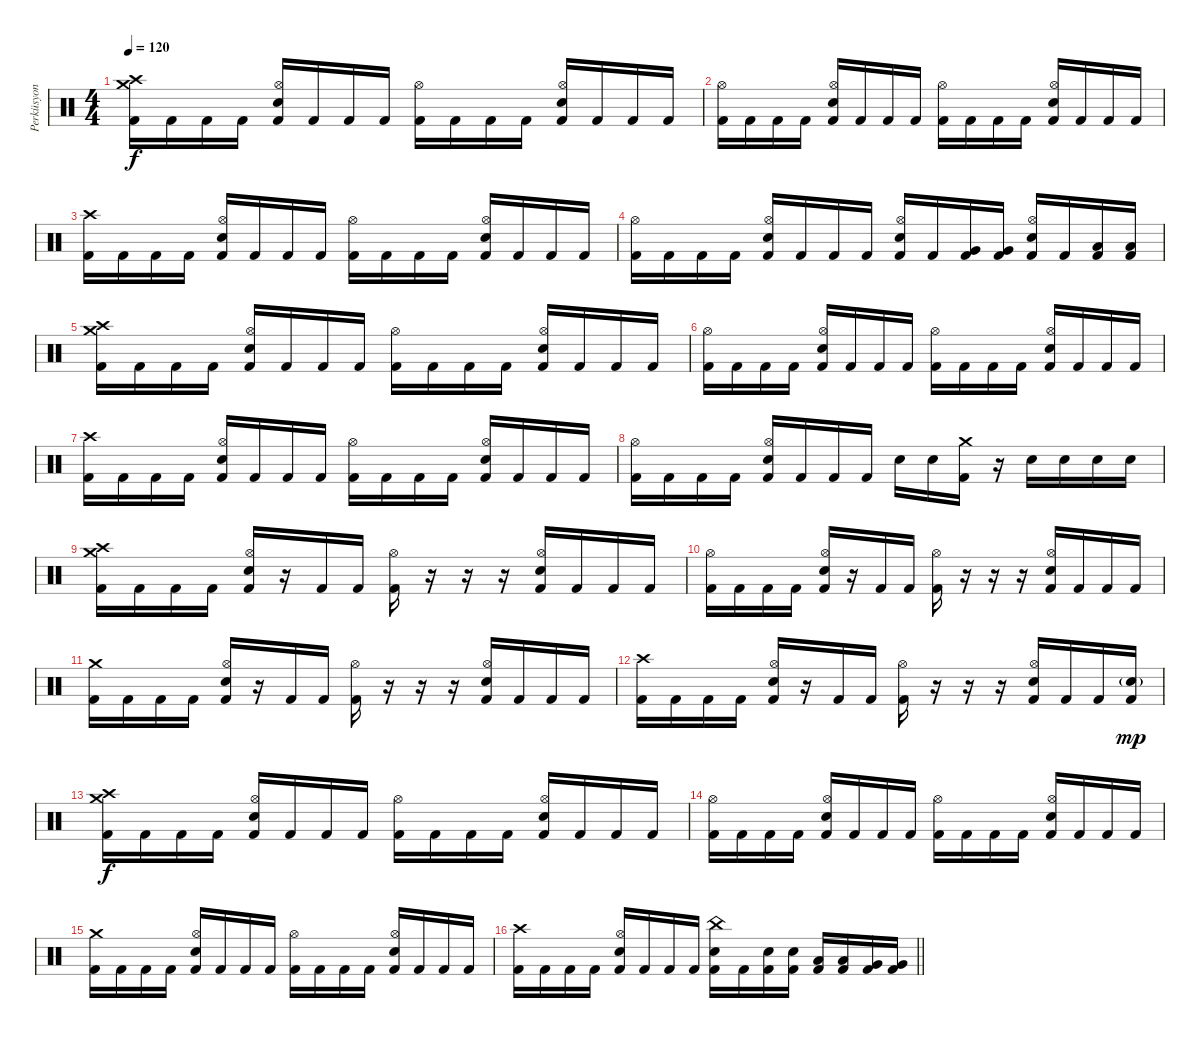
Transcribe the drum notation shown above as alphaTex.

\track ("Perküsyon" "Perküsyon") {instrument percussion}
\staff {score}
\articulation defaults
\ts (4 4)
\tempo 120
\clef neutral
\ks c
("Crash high (hit)" "Crash medium (hit)" "Kick (hit) 2").16{dy f} "Kick (hit) 2".16 "Kick (hit) 2".16 "Kick (hit) 2".16 ("Hi-Hat (open)" "Snare (hit) 2" "Kick (hit) 2").16 "Kick (hit) 2".16 "Kick (hit) 2".16 "Kick (hit) 2".16 ("Hi-Hat (open)" "Kick (hit) 2").16 "Kick (hit) 2".16 "Kick (hit) 2".16 "Kick (hit) 2".16 ("Hi-Hat (open)" "Snare (hit) 2" "Kick (hit) 2").16 "Kick (hit) 2".16 "Kick (hit) 2".16 "Kick (hit) 2".16 |
("Hi-Hat (open)" "Kick (hit) 2").16 "Kick (hit) 2".16 "Kick (hit) 2".16 "Kick (hit) 2".16 ("Hi-Hat (open)" "Snare (hit) 2" "Kick (hit) 2").16 "Kick (hit) 2".16 "Kick (hit) 2".16 "Kick (hit) 2".16 ("Hi-Hat (open)" "Kick (hit) 2").16 "Kick (hit) 2".16 "Kick (hit) 2".16 "Kick (hit) 2".16 ("Hi-Hat (open)" "Snare (hit) 2" "Kick (hit) 2").16 "Kick (hit) 2".16 "Kick (hit) 2".16 "Kick (hit) 2".16 |
("Crash high (hit)" "Kick (hit) 2").16 "Kick (hit) 2".16 "Kick (hit) 2".16 "Kick (hit) 2".16 ("Hi-Hat (open)" "Snare (hit) 2" "Kick (hit) 2").16 "Kick (hit) 2".16 "Kick (hit) 2".16 "Kick (hit) 2".16 ("Hi-Hat (open)" "Kick (hit) 2").16 "Kick (hit) 2".16 "Kick (hit) 2".16 "Kick (hit) 2".16 ("Hi-Hat (open)" "Snare (hit) 2" "Kick (hit) 2").16 "Kick (hit) 2".16 "Kick (hit) 2".16 "Kick (hit) 2".16 |
("Hi-Hat (open)" "Kick (hit) 2").16 "Kick (hit) 2".16 "Kick (hit) 2".16 "Kick (hit) 2".16 ("Hi-Hat (open)" "Snare (hit) 2" "Kick (hit) 2").16 "Kick (hit) 2".16 "Kick (hit) 2".16 "Kick (hit) 2".16 ("Hi-Hat (open)" "Snare (hit) 2" "Kick (hit) 2").16 "Kick (hit) 2".16 ("Very Low Tom (hit)" "Kick (hit) 2").16 ("Very Low Tom (hit)" "Kick (hit) 2").16 ("Hi-Hat (open)" "Snare (hit) 2" "Kick (hit) 2").16 "Kick (hit) 2".16 ("Low Floor Tom (hit)" "Kick (hit) 2").16 ("Low Floor Tom (hit)" "Kick (hit) 2").16 |
("Crash high (hit)" "Crash medium (hit)" "Kick (hit) 2").16 "Kick (hit) 2".16 "Kick (hit) 2".16 "Kick (hit) 2".16 ("Hi-Hat (open)" "Snare (hit) 2" "Kick (hit) 2").16 "Kick (hit) 2".16 "Kick (hit) 2".16 "Kick (hit) 2".16 ("Hi-Hat (open)" "Kick (hit) 2").16 "Kick (hit) 2".16 "Kick (hit) 2".16 "Kick (hit) 2".16 ("Hi-Hat (open)" "Snare (hit) 2" "Kick (hit) 2").16 "Kick (hit) 2".16 "Kick (hit) 2".16 "Kick (hit) 2".16 |
("Hi-Hat (open)" "Kick (hit) 2").16 "Kick (hit) 2".16 "Kick (hit) 2".16 "Kick (hit) 2".16 ("Hi-Hat (open)" "Snare (hit) 2" "Kick (hit) 2").16 "Kick (hit) 2".16 "Kick (hit) 2".16 "Kick (hit) 2".16 ("Hi-Hat (open)" "Kick (hit) 2").16 "Kick (hit) 2".16 "Kick (hit) 2".16 "Kick (hit) 2".16 ("Hi-Hat (open)" "Snare (hit) 2" "Kick (hit) 2").16 "Kick (hit) 2".16 "Kick (hit) 2".16 "Kick (hit) 2".16 |
("Crash high (hit)" "Kick (hit) 2").16 "Kick (hit) 2".16 "Kick (hit) 2".16 "Kick (hit) 2".16 ("Hi-Hat (open)" "Snare (hit) 2" "Kick (hit) 2").16 "Kick (hit) 2".16 "Kick (hit) 2".16 "Kick (hit) 2".16 ("Hi-Hat (open)" "Kick (hit) 2").16 "Kick (hit) 2".16 "Kick (hit) 2".16 "Kick (hit) 2".16 ("Hi-Hat (open)" "Snare (hit) 2" "Kick (hit) 2").16 "Kick (hit) 2".16 "Kick (hit) 2".16 "Kick (hit) 2".16 |
("Hi-Hat (open)" "Kick (hit) 2").16 "Kick (hit) 2".16 "Kick (hit) 2".16 "Kick (hit) 2".16 ("Hi-Hat (open)" "Snare (hit) 2" "Kick (hit) 2").16 "Kick (hit) 2".16 "Kick (hit) 2".16 "Kick (hit) 2".16 "Snare (hit) 2".16 "Snare (hit) 2".16 ("Crash medium (hit)" "Kick (hit) 2").16 r.16 "Snare (hit) 2".16 "Snare (hit) 2".16 "Snare (hit) 2".16 "Snare (hit) 2".16 |
("Crash high (hit)" "Crash medium (hit)" "Kick (hit) 2").16 "Kick (hit) 2".16 "Kick (hit) 2".16 "Kick (hit) 2".16 ("Snare (hit) 2" "Hi-Hat (open)" "Kick (hit) 2").16 r.16 "Kick (hit) 2".16 "Kick (hit) 2".16 ("Hi-Hat (open)" "Kick (hit) 2").16 r.16 r.16 r.16 ("Snare (hit) 2" "Hi-Hat (open)" "Kick (hit) 2").16 "Kick (hit) 2".16 "Kick (hit) 2".16 "Kick (hit) 2".16 |
("Hi-Hat (open)" "Kick (hit) 2").16 "Kick (hit) 2".16 "Kick (hit) 2".16 "Kick (hit) 2".16 ("Snare (hit) 2" "Hi-Hat (open)" "Kick (hit) 2").16 r.16 "Kick (hit) 2".16 "Kick (hit) 2".16 ("Hi-Hat (open)" "Kick (hit) 2").16 r.16 r.16 r.16 ("Snare (hit) 2" "Hi-Hat (open)" "Kick (hit) 2").16 "Kick (hit) 2".16 "Kick (hit) 2".16 "Kick (hit) 2".16 |
("Crash medium (hit)" "Kick (hit) 2").16 "Kick (hit) 2".16 "Kick (hit) 2".16 "Kick (hit) 2".16 ("Snare (hit) 2" "Hi-Hat (open)" "Kick (hit) 2").16 r.16 "Kick (hit) 2".16 "Kick (hit) 2".16 ("Hi-Hat (open)" "Kick (hit) 2").16 r.16 r.16 r.16 ("Snare (hit) 2" "Hi-Hat (open)" "Kick (hit) 2").16 "Kick (hit) 2".16 "Kick (hit) 2".16 "Kick (hit) 2".16 |
("Crash high (hit)" "Kick (hit) 2").16 "Kick (hit) 2".16 "Kick (hit) 2".16 "Kick (hit) 2".16 ("Snare (hit) 2" "Hi-Hat (open)" "Kick (hit) 2").16 r.16 "Kick (hit) 2".16 "Kick (hit) 2".16 ("Hi-Hat (open)" "Kick (hit) 2").16 r.16 r.16 r.16 ("Snare (hit) 2" "Hi-Hat (open)" "Kick (hit) 2").16 "Kick (hit) 2".16 "Kick (hit) 2".16 ("Snare (hit) 2"{g} "Kick (hit) 2").16{dy mp} |
("Crash medium (hit)" "Crash high (hit)" "Kick (hit) 2").16{dy f} "Kick (hit) 2".16 "Kick (hit) 2".16 "Kick (hit) 2".16 ("Snare (hit) 2" "Hi-Hat (open)" "Kick (hit) 2").16 "Kick (hit) 2".16 "Kick (hit) 2".16 "Kick (hit) 2".16 ("Hi-Hat (open)" "Kick (hit) 2").16 "Kick (hit) 2".16 "Kick (hit) 2".16 "Kick (hit) 2".16 ("Snare (hit) 2" "Hi-Hat (open)" "Kick (hit) 2").16 "Kick (hit) 2".16 "Kick (hit) 2".16 "Kick (hit) 2".16 |
("Hi-Hat (open)" "Kick (hit) 2").16 "Kick (hit) 2".16 "Kick (hit) 2".16 "Kick (hit) 2".16 ("Snare (hit) 2" "Hi-Hat (open)" "Kick (hit) 2").16 "Kick (hit) 2".16 "Kick (hit) 2".16 "Kick (hit) 2".16 ("Hi-Hat (open)" "Kick (hit) 2").16 "Kick (hit) 2".16 "Kick (hit) 2".16 "Kick (hit) 2".16 ("Snare (hit) 2" "Hi-Hat (open)" "Kick (hit) 2").16 "Kick (hit) 2".16 "Kick (hit) 2".16 "Kick (hit) 2".16 |
("Crash medium (hit)" "Kick (hit) 2").16 "Kick (hit) 2".16 "Kick (hit) 2".16 "Kick (hit) 2".16 ("Snare (hit) 2" "Hi-Hat (open)" "Kick (hit) 2").16 "Kick (hit) 2".16 "Kick (hit) 2".16 "Kick (hit) 2".16 ("Hi-Hat (open)" "Kick (hit) 2").16 "Kick (hit) 2".16 "Kick (hit) 2".16 "Kick (hit) 2".16 ("Snare (hit) 2" "Hi-Hat (open)" "Kick (hit) 2").16 "Kick (hit) 2".16 "Kick (hit) 2".16 "Kick (hit) 2".16 |
\barLineRight lightlight
("Crash high (hit)" "Kick (hit) 2").16 "Kick (hit) 2".16 "Kick (hit) 2".16 "Kick (hit) 2".16 ("Snare (hit) 2" "Hi-Hat (open)" "Kick (hit) 2").16 "Kick (hit) 2".16 "Kick (hit) 2".16 "Kick (hit) 2".16 ("Snare (hit) 2" "China (hit)" "Kick (hit) 2").16 "Kick (hit) 2".16 ("Snare (hit) 2" "Kick (hit) 2").16 ("Snare (hit) 2" "Kick (hit) 2").16 ("Low Tom (hit)" "Kick (hit) 2").16 ("Low Tom (hit)" "Kick (hit) 2").16 ("Very Low Tom (hit)" "Kick (hit) 2").16 ("Very Low Tom (hit)" "Kick (hit) 2").16
